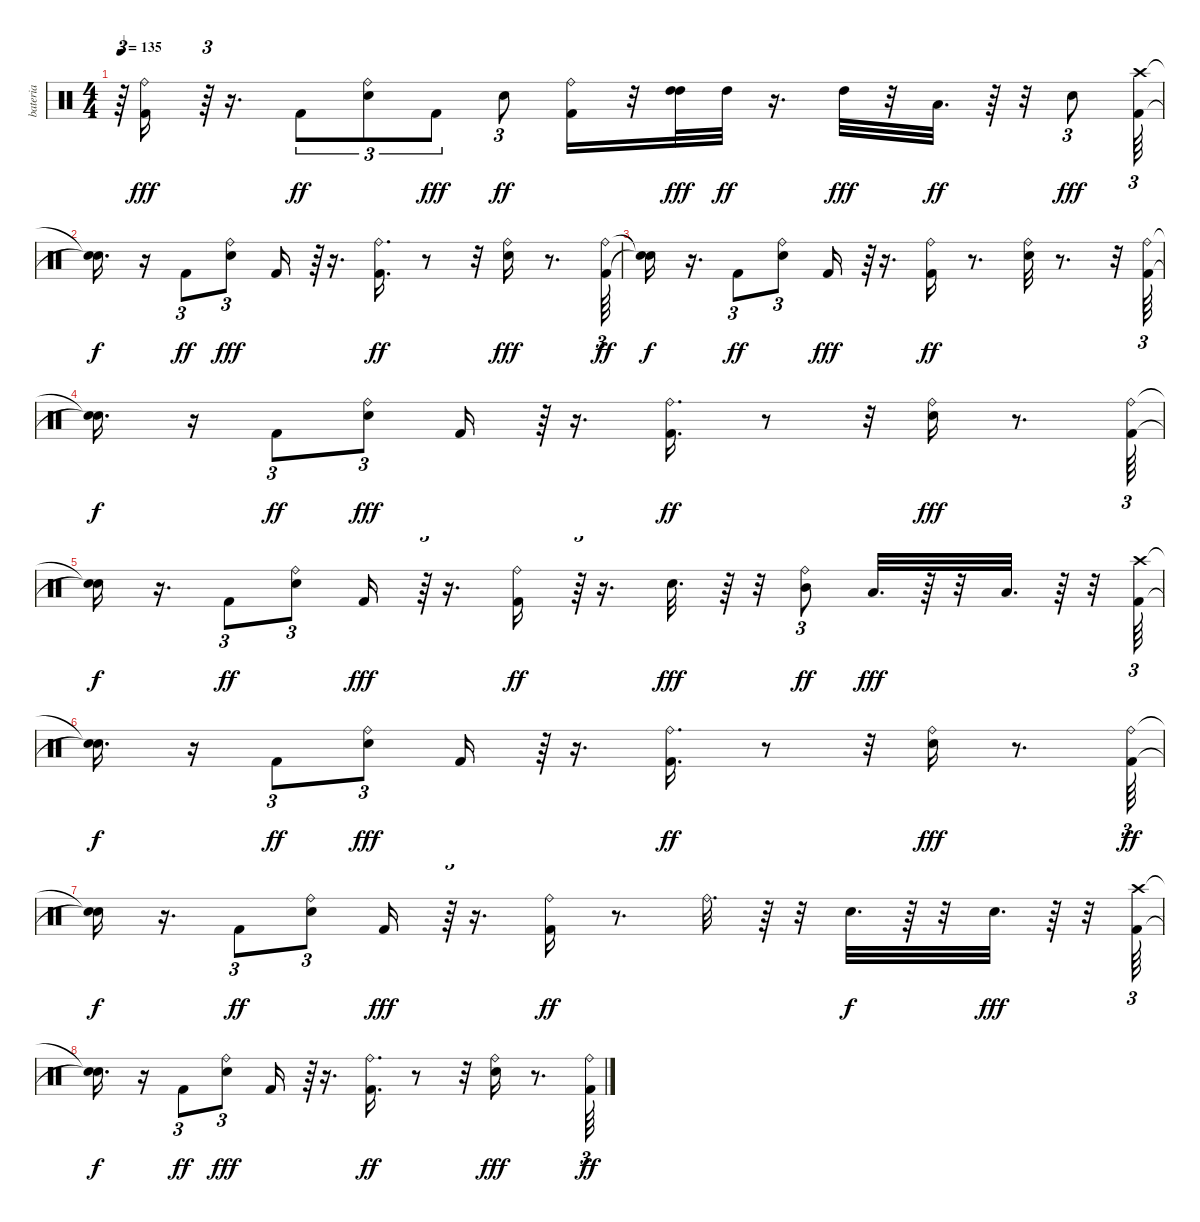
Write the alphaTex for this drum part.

\track ("bateria" "bateria") {instrument percussion}
\staff {score}
\articulation defaults
\ts (4 4)
\tempo 135
\clef neutral
\ks c
r.64{tu (3 2) dy fff} ("Ride (bell)" "Kick (hit) 2").16 r.64{tu (3 2)} r.16{d} "Kick (hit) 2".8{tu (3 2) dy ff} ("Electric Snare (hit)" "Ride (bell)").8{tu (3 2)} "Kick (hit) 2".8{tu (3 2) dy fff} "Electric Snare (hit)".8{tu (3 2) dy ff} ("Kick (hit) 2" "Ride (bell)").16 r.32 ("High Tom (hit)" "High Tom (hit)").32{dy fff} "High Tom (hit)".32{dy ff} r.16{d} "High Tom (hit)".32{dy fff} r.32 "Low Tom (hit)".32{d dy ff} r.64 r.32 "Electric Snare (hit)".8{tu (3 2) dy fff} ("Crash high (hit)" "Kick (hit) 2").64{tu (3 2)} |
("Snare (hit)"{t} "Snare (hit)"{t}).16{d dy f} r.16 "Kick (hit) 2".8{tu (3 2) dy ff} ("Electric Snare (hit)" "Ride (bell)").8{tu (3 2) dy fff} "Kick (hit) 2".16 r.64{tu (3 2)} r.16{d} ("Kick (hit) 2" "Ride (bell)").16{d dy ff} r.8 r.32 ("Electric Snare (hit)" "Ride (bell)").16{dy fff} r.8{d} ("Kick (hit) 2" "Ride (bell)").64{tu (3 2) dy ff} |
("Snare (hit)"{t} "Snare (hit)"{t}).16{dy f} r.16{d} "Kick (hit) 2".8{tu (3 2) dy ff} ("Electric Snare (hit)" "Ride (bell)").8{tu (3 2)} "Kick (hit) 2".16{dy fff} r.64{tu (3 2)} r.16{d} ("Kick (hit) 2" "Ride (bell)").16{dy ff} r.8{d} ("Electric Snare (hit)" "Ride (bell)").32 r.8{d} r.32 ("Kick (hit) 2" "Ride (bell)").64{tu (3 2)} |
("Snare (hit)"{t} "Snare (hit)"{t}).16{d dy f} r.16 "Kick (hit) 2".8{tu (3 2) dy ff} ("Electric Snare (hit)" "Ride (bell)").8{tu (3 2) dy fff} "Kick (hit) 2".16 r.64{tu (3 2)} r.16{d} ("Ride (bell)" "Kick (hit) 2").16{d dy ff} r.8 r.32 ("Electric Snare (hit)" "Ride (bell)").16{dy fff} r.8{d} ("Ride (bell)" "Kick (hit) 2").64{tu (3 2)} |
("Snare (hit)"{t} "Snare (hit)"{t}).16{dy f} r.16{d} "Kick (hit) 2".8{tu (3 2) dy ff} ("Electric Snare (hit)" "Ride (bell)").8{tu (3 2)} "Kick (hit) 2".16{dy fff} r.64{tu (3 2)} r.16{d} ("Kick (hit) 2" "Ride (bell)").16{dy ff} r.64{tu (3 2)} r.16{d} "Electric Snare (hit)".32{d dy fff} r.64 r.32 ("Ride (bell)" "Mid Tom (hit)").8{tu (3 2) dy ff} "Low Tom (hit)".32{d dy fff} r.64 r.32 "Low Floor Tom (hit)".32{d} r.64 r.32 ("Crash high (hit)" "Kick (hit) 2").64{tu (3 2)} |
("Snare (hit)"{t} "Snare (hit)"{t}).16{d dy f} r.16 "Kick (hit) 2".8{tu (3 2) dy ff} ("Electric Snare (hit)" "Ride (bell)").8{tu (3 2) dy fff} "Kick (hit) 2".16 r.64{tu (3 2)} r.16{d} ("Kick (hit) 2" "Ride (bell)").16{d dy ff} r.8 r.32 ("Electric Snare (hit)" "Ride (bell)").16{dy fff} r.8{d} ("Kick (hit) 2" "Ride (bell)").64{tu (3 2) dy ff} |
("Snare (hit)"{t} "Snare (hit)"{t}).16{dy f} r.16{d} "Kick (hit) 2".8{tu (3 2) dy ff} ("Electric Snare (hit)" "Ride (bell)").8{tu (3 2)} "Kick (hit) 2".16{dy fff} r.64{tu (3 2)} r.16{d} ("Kick (hit) 2" "Ride (bell)").16{dy ff} r.8{d} "Ride (bell)".32{d} r.64 r.32 "Electric Snare (hit)".32{d dy f} r.64 r.32 "Electric Snare (hit)".32{d dy fff} r.64 r.32 ("Crash high (hit)" "Kick (hit) 2").64{tu (3 2)} |
("Snare (hit)"{t} "Snare (hit)"{t}).16{d dy f} r.16 "Kick (hit) 2".8{tu (3 2) dy ff} ("Electric Snare (hit)" "Ride (bell)").8{tu (3 2) dy fff} "Kick (hit) 2".16 r.64{tu (3 2)} r.16{d} ("Kick (hit) 2" "Ride (bell)").16{d dy ff} r.8 r.32 ("Electric Snare (hit)" "Ride (bell)").16{dy fff} r.8{d} ("Kick (hit) 2" "Ride (bell)").64{tu (3 2) dy ff}
